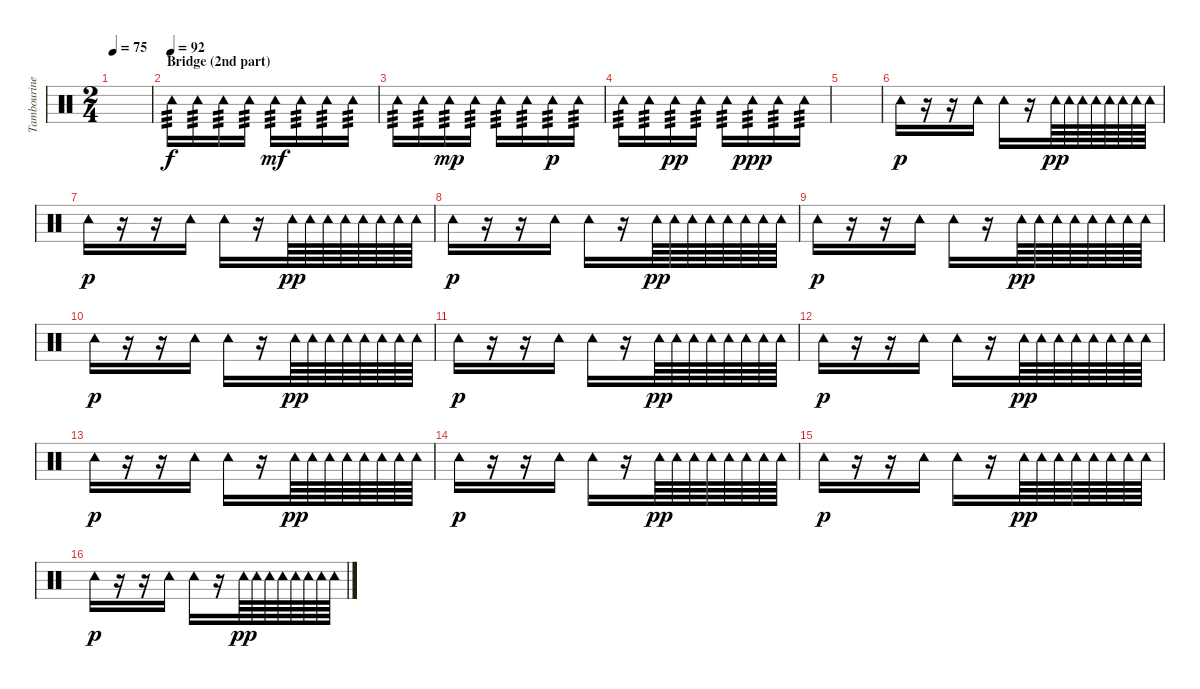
\track ("Tambourine" "Tambourine") {instrument percussion}
\staff {score}
\articulation defaults
\ts (2 4)
\tempo 75
\clef neutral
\ks c
|
\section ("" "Bridge (2nd part)")
\tempo (92)
"Tambourine (hit)".16{tp 3} "Tambourine (hit)".16{tp 3} "Tambourine (hit)".16{tp 3} "Tambourine (hit)".16{tp 3} "Tambourine (hit)".16{tp 3 dy mf} "Tambourine (hit)".16{tp 3} "Tambourine (hit)".16{tp 3} "Tambourine (hit)".16{tp 3} |
"Tambourine (hit)".16{tp 3} "Tambourine (hit)".16{tp 3} "Tambourine (hit)".16{tp 3 dy mp} "Tambourine (hit)".16{tp 3} "Tambourine (hit)".16{tp 3} "Tambourine (hit)".16{tp 3} "Tambourine (hit)".16{tp 3 dy p} "Tambourine (hit)".16{tp 3} |
"Tambourine (hit)".16{tp 3} "Tambourine (hit)".16{tp 3} "Tambourine (hit)".16{tp 3 dy pp} "Tambourine (hit)".16{tp 3} "Tambourine (hit)".16{tp 3} "Tambourine (hit)".16{tp 3 dy ppp} "Tambourine (hit)".16{tp 3} "Tambourine (hit)".16{tp 3} |
|
"Tambourine (hit)".16{dy p volume 13} r.16 r.16 "Tambourine (hit)".16 "Tambourine (hit)".16 r.16 "Tambourine (hit)".64{dy pp} "Tambourine (hit)".64 "Tambourine (hit)".64 "Tambourine (hit)".64 "Tambourine (hit)".64 "Tambourine (hit)".64 "Tambourine (hit)".64 "Tambourine (hit)".64 |
"Tambourine (hit)".16{dy p volume 13} r.16 r.16 "Tambourine (hit)".16 "Tambourine (hit)".16 r.16 "Tambourine (hit)".64{dy pp} "Tambourine (hit)".64 "Tambourine (hit)".64 "Tambourine (hit)".64 "Tambourine (hit)".64 "Tambourine (hit)".64 "Tambourine (hit)".64 "Tambourine (hit)".64 |
"Tambourine (hit)".16{dy p volume 13} r.16 r.16 "Tambourine (hit)".16 "Tambourine (hit)".16 r.16 "Tambourine (hit)".64{dy pp} "Tambourine (hit)".64 "Tambourine (hit)".64 "Tambourine (hit)".64 "Tambourine (hit)".64 "Tambourine (hit)".64 "Tambourine (hit)".64 "Tambourine (hit)".64 |
"Tambourine (hit)".16{dy p volume 13} r.16 r.16 "Tambourine (hit)".16 "Tambourine (hit)".16 r.16 "Tambourine (hit)".64{dy pp} "Tambourine (hit)".64 "Tambourine (hit)".64 "Tambourine (hit)".64 "Tambourine (hit)".64 "Tambourine (hit)".64 "Tambourine (hit)".64 "Tambourine (hit)".64 |
"Tambourine (hit)".16{dy p volume 13} r.16 r.16 "Tambourine (hit)".16 "Tambourine (hit)".16 r.16 "Tambourine (hit)".64{dy pp} "Tambourine (hit)".64 "Tambourine (hit)".64 "Tambourine (hit)".64 "Tambourine (hit)".64 "Tambourine (hit)".64 "Tambourine (hit)".64 "Tambourine (hit)".64 |
"Tambourine (hit)".16{dy p volume 13} r.16 r.16 "Tambourine (hit)".16 "Tambourine (hit)".16 r.16 "Tambourine (hit)".64{dy pp} "Tambourine (hit)".64 "Tambourine (hit)".64 "Tambourine (hit)".64 "Tambourine (hit)".64 "Tambourine (hit)".64 "Tambourine (hit)".64 "Tambourine (hit)".64 |
"Tambourine (hit)".16{dy p volume 13} r.16 r.16 "Tambourine (hit)".16 "Tambourine (hit)".16 r.16 "Tambourine (hit)".64{dy pp} "Tambourine (hit)".64 "Tambourine (hit)".64 "Tambourine (hit)".64 "Tambourine (hit)".64 "Tambourine (hit)".64 "Tambourine (hit)".64 "Tambourine (hit)".64 |
"Tambourine (hit)".16{dy p volume 13} r.16 r.16 "Tambourine (hit)".16 "Tambourine (hit)".16 r.16 "Tambourine (hit)".64{dy pp} "Tambourine (hit)".64 "Tambourine (hit)".64 "Tambourine (hit)".64 "Tambourine (hit)".64 "Tambourine (hit)".64 "Tambourine (hit)".64 "Tambourine (hit)".64 |
"Tambourine (hit)".16{dy p volume 13} r.16 r.16 "Tambourine (hit)".16 "Tambourine (hit)".16 r.16 "Tambourine (hit)".64{dy pp} "Tambourine (hit)".64 "Tambourine (hit)".64 "Tambourine (hit)".64 "Tambourine (hit)".64 "Tambourine (hit)".64 "Tambourine (hit)".64 "Tambourine (hit)".64 |
"Tambourine (hit)".16{dy p volume 13} r.16 r.16 "Tambourine (hit)".16 "Tambourine (hit)".16 r.16 "Tambourine (hit)".64{dy pp} "Tambourine (hit)".64 "Tambourine (hit)".64 "Tambourine (hit)".64 "Tambourine (hit)".64 "Tambourine (hit)".64 "Tambourine (hit)".64 "Tambourine (hit)".64 |
"Tambourine (hit)".16{dy p volume 13} r.16 r.16 "Tambourine (hit)".16 "Tambourine (hit)".16 r.16 "Tambourine (hit)".64{dy pp} "Tambourine (hit)".64 "Tambourine (hit)".64 "Tambourine (hit)".64 "Tambourine (hit)".64 "Tambourine (hit)".64 "Tambourine (hit)".64 "Tambourine (hit)".64
